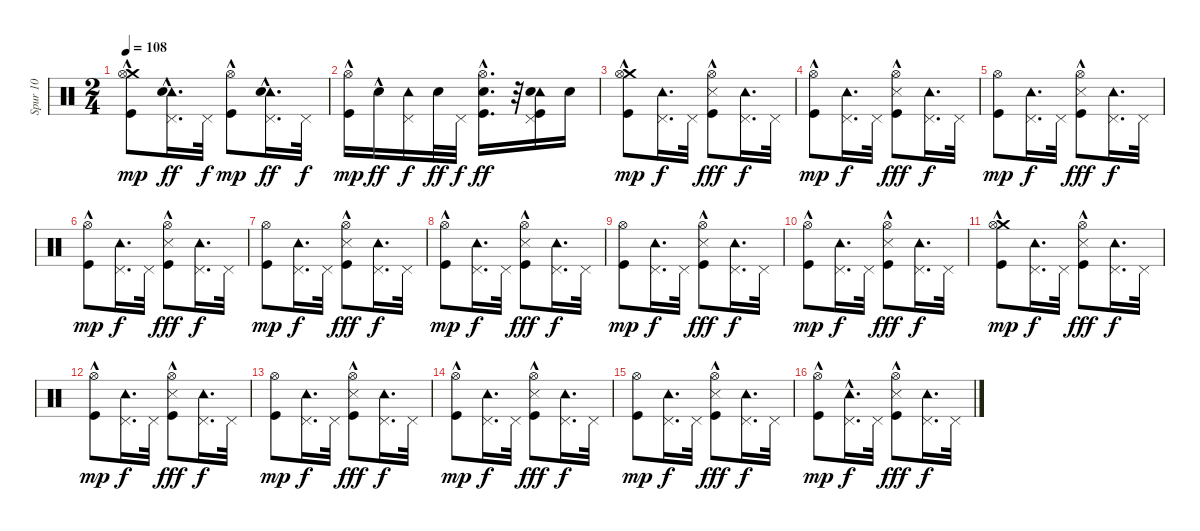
\track ("Spur 10" "Spur 10") {instrument percussion}
\staff {score}
\articulation defaults
\ts (2 4)
\tempo 108
\clef neutral
\ks c
("Crash medium (hit)"{hac} "Hi-Hat (open)" "Kick (hit)").8{dy mp} ("Tambourine (hit)"{hac} "Pedal Hi-Hat (hit)" "Electric Snare (hit)").16{d dy ff} "Pedal Hi-Hat (hit)".32{dy f} ("Hi-Hat (open)"{hac} "Kick (hit)").8{dy mp} ("Tambourine (hit)"{hac} "Pedal Hi-Hat (hit)" "Electric Snare (hit)").16{d dy ff} "Pedal Hi-Hat (hit)".32{dy f} |
("Hi-Hat (open)"{hac} "Kick (hit)").16{dy mp} "Electric Snare (hit)"{hac}.16{dy ff} ("Tambourine (hit)" "Pedal Hi-Hat (hit)").16{dy f} "Electric Snare (hit)".32{dy ff} "Pedal Hi-Hat (hit)".32{dy f} ("Hi-Hat (open)"{hac} "Electric Snare (hit)"{hac} "Kick (hit)").16{d dy ff} r.32 ("Tambourine (hit)" "Pedal Hi-Hat (hit)" "Electric Snare (hit)" "Kick (hit)").16 "Electric Snare (hit)".16 |
("Crash medium (hit)"{hac} "Hi-Hat (open)" "Kick (hit)").8{dy mp} ("Tambourine (hit)" "Pedal Hi-Hat (hit)").16{d dy f} "Pedal Hi-Hat (hit)".32 ("Hi-Hat (open)"{hac} "Kick (hit)" "Snare (side stick) 3"{hac}).8{dy fff} ("Tambourine (hit)" "Pedal Hi-Hat (hit)").16{d dy f} "Pedal Hi-Hat (hit)".32 |
("Hi-Hat (open)"{hac} "Kick (hit)").8{dy mp} ("Tambourine (hit)" "Pedal Hi-Hat (hit)").16{d dy f} "Pedal Hi-Hat (hit)".32 ("Hi-Hat (open)" "Kick (hit)" "Snare (side stick) 3"{hac}).8{dy fff} ("Tambourine (hit)" "Pedal Hi-Hat (hit)").16{d dy f} "Pedal Hi-Hat (hit)".32 |
("Hi-Hat (open)" "Kick (hit)").8{dy mp} ("Tambourine (hit)" "Pedal Hi-Hat (hit)").16{d dy f} "Pedal Hi-Hat (hit)".32 ("Hi-Hat (open)"{hac} "Kick (hit)" "Snare (side stick) 3"{hac}).8{dy fff} ("Tambourine (hit)" "Pedal Hi-Hat (hit)").16{d dy f} "Pedal Hi-Hat (hit)".32 |
("Hi-Hat (open)"{hac} "Kick (hit)").8{dy mp} ("Tambourine (hit)" "Pedal Hi-Hat (hit)").16{d dy f} "Pedal Hi-Hat (hit)".32 ("Hi-Hat (open)" "Kick (hit)" "Snare (side stick) 3"{hac}).8{dy fff} ("Tambourine (hit)" "Pedal Hi-Hat (hit)").16{d dy f} "Pedal Hi-Hat (hit)".32 |
("Hi-Hat (open)" "Kick (hit)").8{dy mp} ("Tambourine (hit)" "Pedal Hi-Hat (hit)").16{d dy f} "Pedal Hi-Hat (hit)".32 ("Hi-Hat (open)"{hac} "Kick (hit)" "Snare (side stick) 3"{hac}).8{dy fff} ("Tambourine (hit)" "Pedal Hi-Hat (hit)").16{d dy f} "Pedal Hi-Hat (hit)".32 |
("Hi-Hat (open)"{hac} "Kick (hit)").8{dy mp} ("Tambourine (hit)" "Pedal Hi-Hat (hit)").16{d dy f} "Pedal Hi-Hat (hit)".32 ("Hi-Hat (open)" "Kick (hit)" "Snare (side stick) 3"{hac}).8{dy fff} ("Tambourine (hit)" "Pedal Hi-Hat (hit)").16{d dy f} "Pedal Hi-Hat (hit)".32 |
("Hi-Hat (open)" "Kick (hit)").8{dy mp} ("Tambourine (hit)" "Pedal Hi-Hat (hit)").16{d dy f} "Pedal Hi-Hat (hit)".32 ("Hi-Hat (open)"{hac} "Kick (hit)" "Snare (side stick) 3"{hac}).8{dy fff} ("Tambourine (hit)" "Pedal Hi-Hat (hit)").16{d dy f} "Pedal Hi-Hat (hit)".32 |
("Hi-Hat (open)"{hac} "Kick (hit)").8{dy mp} ("Tambourine (hit)" "Pedal Hi-Hat (hit)").16{d dy f} "Pedal Hi-Hat (hit)".32 ("Hi-Hat (open)" "Kick (hit)" "Snare (side stick) 3"{hac}).8{dy fff} ("Tambourine (hit)" "Pedal Hi-Hat (hit)").16{d dy f} "Pedal Hi-Hat (hit)".32 |
("Crash medium (hit)"{hac} "Hi-Hat (open)" "Kick (hit)").8{dy mp} ("Tambourine (hit)" "Pedal Hi-Hat (hit)").16{d dy f} "Pedal Hi-Hat (hit)".32 ("Hi-Hat (open)"{hac} "Kick (hit)" "Snare (side stick) 3"{hac}).8{dy fff} ("Tambourine (hit)" "Pedal Hi-Hat (hit)").16{d dy f} "Pedal Hi-Hat (hit)".32 |
("Hi-Hat (open)"{hac} "Kick (hit)").8{dy mp} ("Tambourine (hit)" "Pedal Hi-Hat (hit)").16{d dy f} "Pedal Hi-Hat (hit)".32 ("Hi-Hat (open)" "Kick (hit)" "Snare (side stick) 3"{hac}).8{dy fff} ("Tambourine (hit)" "Pedal Hi-Hat (hit)").16{d dy f} "Pedal Hi-Hat (hit)".32 |
("Hi-Hat (open)" "Kick (hit)").8{dy mp} ("Tambourine (hit)" "Pedal Hi-Hat (hit)").16{d dy f} "Pedal Hi-Hat (hit)".32 ("Hi-Hat (open)"{hac} "Kick (hit)" "Snare (side stick) 3"{hac}).8{dy fff} ("Tambourine (hit)" "Pedal Hi-Hat (hit)").16{d dy f} "Pedal Hi-Hat (hit)".32 |
("Hi-Hat (open)"{hac} "Kick (hit)").8{dy mp} ("Tambourine (hit)" "Pedal Hi-Hat (hit)").16{d dy f} "Pedal Hi-Hat (hit)".32 ("Hi-Hat (open)" "Kick (hit)" "Snare (side stick) 3"{hac}).8{dy fff} ("Tambourine (hit)" "Pedal Hi-Hat (hit)").16{d dy f} "Pedal Hi-Hat (hit)".32 |
("Hi-Hat (open)" "Kick (hit)").8{dy mp} ("Tambourine (hit)" "Pedal Hi-Hat (hit)").16{d dy f} "Pedal Hi-Hat (hit)".32 ("Hi-Hat (open)"{hac} "Kick (hit)" "Snare (side stick) 3"{hac}).8{dy fff} ("Tambourine (hit)" "Pedal Hi-Hat (hit)").16{d dy f} "Pedal Hi-Hat (hit)".32 |
("Hi-Hat (open)"{hac} "Kick (hit)").8{dy mp} ("Tambourine (hit)"{hac} "Pedal Hi-Hat (hit)").16{d dy f} "Pedal Hi-Hat (hit)".32 ("Hi-Hat (open)" "Kick (hit)" "Snare (side stick) 3"{hac}).8{dy fff} ("Tambourine (hit)" "Pedal Hi-Hat (hit)").16{d dy f} "Pedal Hi-Hat (hit)".32
